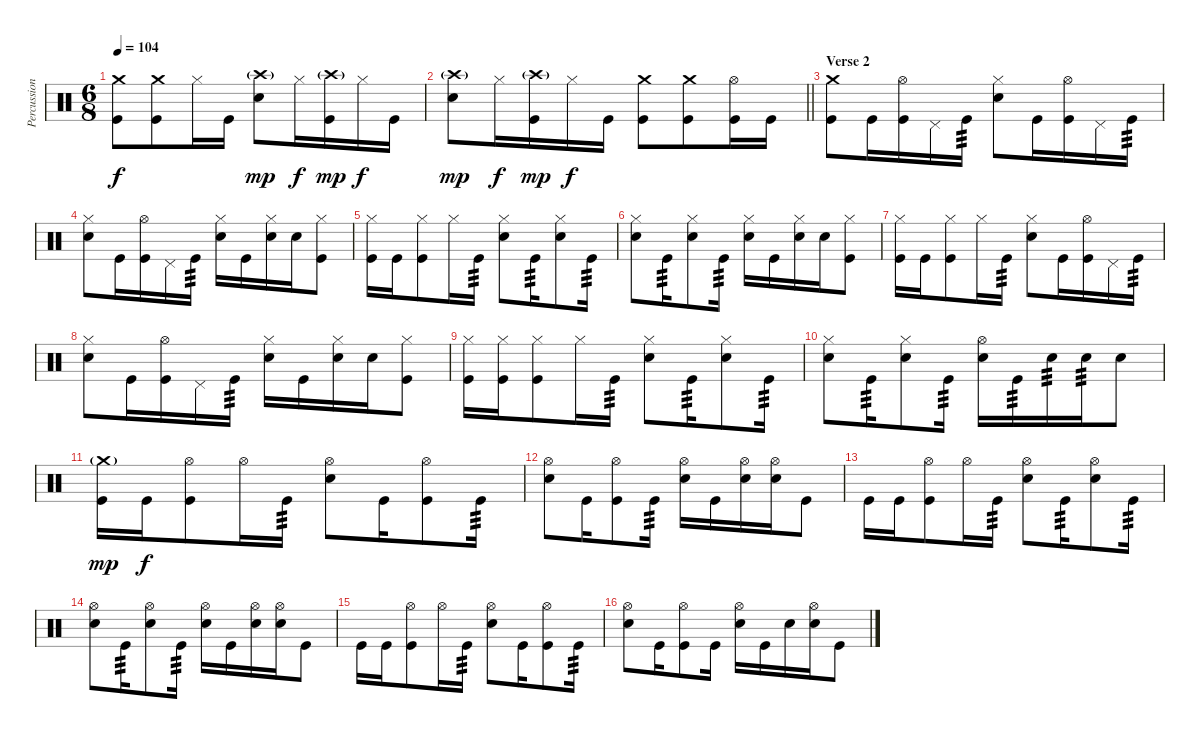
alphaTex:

\track ("Percussion" "Percussion") {instrument percussion}
\staff {score}
\articulation defaults
\ts (6 8)
\tempo 104
\clef neutral
\ks c
("Crash medium (hit)" "Kick (hit)").8{dy f} ("Crash medium (hit)" "Kick (hit)").8 "Hi-Hat (closed)".16 "Kick (hit)".16 ("Crash high (hit)"{g} "Snare (hit) 2").8{dy mp} "Hi-Hat (closed)".16{dy f} ("Crash high (hit)"{g} "Kick (hit)").16{dy mp} "Hi-Hat (closed)".16{dy f} "Kick (hit)".16 |
\barLineRight lightlight
("Crash high (hit)"{g} "Snare (hit) 2").8{dy mp} "Hi-Hat (closed)".16{dy f} ("Crash high (hit)"{g} "Kick (hit)").16{dy mp} "Hi-Hat (closed)".16{dy f} "Kick (hit)".16 ("Crash medium (hit)" "Kick (hit)").8 ("Crash medium (hit)" "Kick (hit)").8 ("Hi-Hat (open)" "Kick (hit)").16 "Kick (hit)".16 |
\section ("" "Verse 2")
("Crash medium (hit)" "Kick (hit)").8 "Kick (hit)".16 ("Hi-Hat (open)" "Kick (hit)").16 "Pedal Hi-Hat (hit)".16 "Kick (hit)".16{tp 3} ("Hi-Hat (closed)" "Snare (hit) 2").8 "Kick (hit)".16 ("Hi-Hat (open)" "Kick (hit)").16 "Pedal Hi-Hat (hit)".16 "Kick (hit)".16{tp 3} |
("Hi-Hat (closed)" "Snare (hit) 2").8 "Kick (hit)".16 ("Hi-Hat (open)" "Kick (hit)").16 "Pedal Hi-Hat (hit)".16 "Kick (hit)".16{tp 3} ("Hi-Hat (closed)" "Snare (hit) 2").16 "Kick (hit)".16 ("Hi-Hat (closed)" "Snare (hit) 2").16 "Snare (hit) 2".16 ("Hi-Hat (closed)" "Kick (hit)").8 |
("Hi-Hat (closed)" "Kick (hit)").16 "Kick (hit)".16 ("Hi-Hat (closed)" "Kick (hit)").8 "Hi-Hat (closed)".16 "Kick (hit)".16{tp 3} ("Hi-Hat (closed)" "Snare (hit) 2").8 "Kick (hit)".16{tp 3} ("Hi-Hat (closed)" "Snare (hit) 2").8 "Kick (hit)".16{tp 3} |
("Hi-Hat (closed)" "Snare (hit) 2").8 "Kick (hit)".16{tp 3} ("Hi-Hat (closed)" "Snare (hit) 2").8 "Kick (hit)".16{tp 3} ("Hi-Hat (closed)" "Snare (hit) 2").16 "Kick (hit)".16 ("Hi-Hat (closed)" "Snare (hit) 2").16 "Snare (hit) 2".16 ("Hi-Hat (closed)" "Kick (hit)").8 |
("Hi-Hat (closed)" "Kick (hit)").16 "Kick (hit)".16 ("Hi-Hat (closed)" "Kick (hit)").8 "Hi-Hat (closed)".16 "Kick (hit)".16{tp 3} ("Hi-Hat (closed)" "Snare (hit) 2").8 "Kick (hit)".16 ("Hi-Hat (open)" "Kick (hit)").16 "Pedal Hi-Hat (hit)".16 "Kick (hit)".16{tp 3} |
("Hi-Hat (closed)" "Snare (hit) 2").8 "Kick (hit)".16 ("Hi-Hat (open)" "Kick (hit)").16 "Pedal Hi-Hat (hit)".16 "Kick (hit)".16{tp 3} ("Hi-Hat (closed)" "Snare (hit) 2").16 "Kick (hit)".16 ("Hi-Hat (closed)" "Snare (hit) 2").16 "Snare (hit) 2".16 ("Hi-Hat (closed)" "Kick (hit)").8 |
("Hi-Hat (closed)" "Kick (hit)").16 ("Hi-Hat (closed)" "Kick (hit)").16 ("Hi-Hat (closed)" "Kick (hit)").8 "Hi-Hat (closed)".16 "Kick (hit)".16{tp 3} ("Hi-Hat (closed)" "Snare (hit) 2").8 "Kick (hit)".16{tp 3} ("Hi-Hat (closed)" "Snare (hit) 2").8 "Kick (hit)".16{tp 3} |
("Hi-Hat (closed)" "Snare (hit) 2").8 "Kick (hit)".16{tp 3} ("Hi-Hat (closed)" "Snare (hit) 2").8 "Kick (hit)".16{tp 3} ("Hi-Hat (open)" "Snare (hit) 2").16 "Kick (hit)".16{tp 3} "Snare (hit) 2".16{tp 3} "Snare (hit) 2".16{tp 3} "Snare (hit) 2".8 |
("Crash medium (hit)"{g} "Kick (hit)").16{dy mp} "Kick (hit)".16{dy f} ("Hi-Hat (open)" "Kick (hit)").8 "Hi-Hat (open)".16 "Kick (hit)".16{tp 3} ("Hi-Hat (open)" "Snare (hit) 2").8 "Kick (hit)".16 ("Hi-Hat (open)" "Kick (hit)").8 "Kick (hit)".16{tp 3} |
("Hi-Hat (open)" "Snare (hit) 2").8 "Kick (hit)".16 ("Hi-Hat (open)" "Kick (hit)").8 "Kick (hit)".16{tp 3} ("Hi-Hat (open)" "Snare (hit) 2").16 "Kick (hit)".16 ("Hi-Hat (open)" "Snare (hit) 2").16 ("Hi-Hat (open)" "Snare (hit) 2").16 "Kick (hit)".8 |
"Kick (hit)".16 "Kick (hit)".16 ("Hi-Hat (open)" "Kick (hit)").8 "Hi-Hat (open)".16 "Kick (hit)".16{tp 3} ("Hi-Hat (open)" "Snare (hit) 2").8 "Kick (hit)".16{tp 3} ("Hi-Hat (open)" "Snare (hit) 2").8 "Kick (hit)".16{tp 3} |
("Hi-Hat (open)" "Snare (hit) 2").8 "Kick (hit)".16{tp 3} ("Hi-Hat (open)" "Snare (hit) 2").8 "Kick (hit)".16{tp 3} ("Hi-Hat (open)" "Snare (hit) 2").16 "Kick (hit)".16 ("Hi-Hat (open)" "Snare (hit) 2").16 ("Hi-Hat (open)" "Snare (hit) 2").16 "Kick (hit)".8 |
"Kick (hit)".16 "Kick (hit)".16 ("Hi-Hat (open)" "Kick (hit)").8 "Hi-Hat (open)".16 "Kick (hit)".16{tp 3} ("Hi-Hat (open)" "Snare (hit) 2").8 "Kick (hit)".16 ("Hi-Hat (open)" "Kick (hit)").8 "Kick (hit)".16{tp 3} |
("Hi-Hat (open)" "Snare (hit) 2").8 "Kick (hit)".16 ("Hi-Hat (open)" "Kick (hit)").8 "Kick (hit)".16 ("Hi-Hat (open)" "Snare (hit) 2").16 "Kick (hit)".16 "Snare (hit) 2".16 ("Hi-Hat (open)" "Snare (hit) 2").16 "Kick (hit)".8
